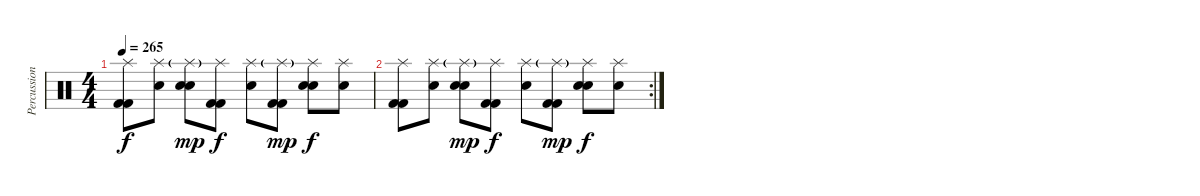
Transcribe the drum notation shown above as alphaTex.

\track ("Percussion" "Percussion") {instrument percussion}
\staff {score}
\articulation defaults
\ts (4 4)
\tempo 265
\clef neutral
\ks c
("Splash (hit)" "Kick (hit) 2" "Kick (hit) 2").8{dy f} ("Splash (hit)" "Snare (hit)").8 ("Splash (hit)"{g} "Electric Snare (hit)" "Electric Snare (hit)").8{dy mp} ("Splash (hit)" "Kick (hit) 2" "Kick (hit) 2").8{dy f} ("Splash (hit)" "Snare (hit)").8 ("Splash (hit)"{g} "Kick (hit) 2" "Kick (hit) 2").8{dy mp} ("Splash (hit)" "Electric Snare (hit)" "Electric Snare (hit)").8{dy f} ("Splash (hit)" "Snare (hit)").8 |
\rc 2
("Splash (hit)" "Kick (hit) 2" "Kick (hit) 2").8 ("Splash (hit)" "Snare (hit)").8 ("Splash (hit)"{g} "Electric Snare (hit)" "Electric Snare (hit)").8{dy mp} ("Splash (hit)" "Kick (hit) 2" "Kick (hit) 2").8{dy f} ("Splash (hit)" "Snare (hit)").8 ("Splash (hit)"{g} "Kick (hit) 2" "Kick (hit) 2").8{dy mp} ("Splash (hit)" "Electric Snare (hit)" "Electric Snare (hit)").8{dy f} ("Splash (hit)" "Snare (hit)").8
